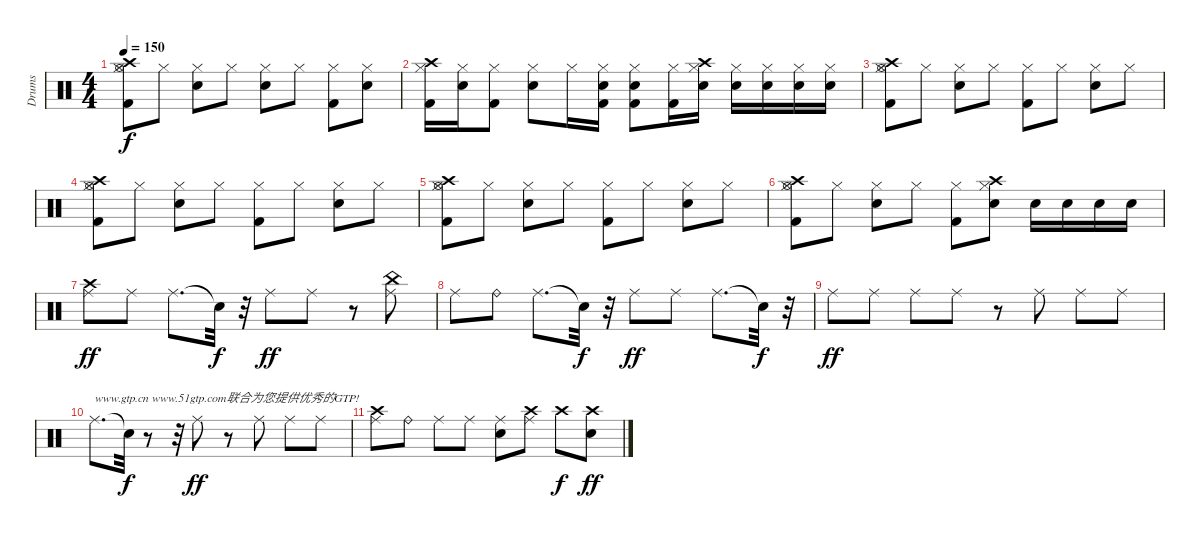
\track ("Drums" "Drums") {instrument percussion}
\staff {score}
\articulation defaults
\ts (4 4)
\tempo 150
\clef neutral
\ks c
("Kick (hit) 2" "Hi-Hat (closed)" "Crash high (hit)" "Hi-Hat (open)").8{dy f} "Hi-Hat (closed)".8 ("Snare (hit) 2" "Hi-Hat (closed)").8 "Hi-Hat (closed)".8 ("Snare (hit) 2" "Hi-Hat (closed)").8 "Hi-Hat (closed)".8 ("Kick (hit) 2" "Hi-Hat (closed)").8 ("Snare (hit) 2" "Hi-Hat (closed)").8 |
("Kick (hit) 2" "Hi-Hat (closed)" "Crash high (hit)").16 ("Snare (hit) 2" "Hi-Hat (closed)").16 ("Kick (hit) 2" "Hi-Hat (closed)").8 ("Snare (hit) 2" "Hi-Hat (closed)").8 "Hi-Hat (closed)".16 ("Snare (hit) 2" "Hi-Hat (closed)" "Kick (hit) 2").16 ("Snare (hit) 2" "Hi-Hat (closed)" "Kick (hit) 2").8 ("Hi-Hat (closed)" "Kick (hit) 2").16 ("Snare (hit) 2" "Hi-Hat (closed)" "Crash high (hit)").16 ("Snare (hit) 2" "Hi-Hat (closed)").16 ("Snare (hit) 2" "Hi-Hat (closed)").16 ("Snare (hit) 2" "Hi-Hat (closed)").16 ("Snare (hit) 2" "Hi-Hat (closed)").16 |
("Kick (hit) 2" "Hi-Hat (closed)" "Crash high (hit)" "Hi-Hat (open)").8 "Hi-Hat (closed)".8 ("Snare (hit) 2" "Hi-Hat (closed)").8 "Hi-Hat (closed)".8 ("Kick (hit) 2" "Hi-Hat (closed)").8 "Hi-Hat (closed)".8 ("Snare (hit) 2" "Hi-Hat (closed)").8 "Hi-Hat (closed)".8 |
("Kick (hit) 2" "Hi-Hat (closed)" "Crash high (hit)" "Hi-Hat (open)").8 "Hi-Hat (closed)".8 ("Snare (hit) 2" "Hi-Hat (closed)").8 "Hi-Hat (closed)".8 ("Kick (hit) 2" "Hi-Hat (closed)").8 "Hi-Hat (closed)".8 ("Snare (hit) 2" "Hi-Hat (closed)").8 "Hi-Hat (closed)".8 |
("Kick (hit) 2" "Hi-Hat (closed)" "Crash high (hit)" "Hi-Hat (open)").8 "Hi-Hat (closed)".8 ("Snare (hit) 2" "Hi-Hat (closed)").8 "Hi-Hat (closed)".8 ("Kick (hit) 2" "Hi-Hat (closed)").8 "Hi-Hat (closed)".8 ("Snare (hit) 2" "Hi-Hat (closed)").8 "Hi-Hat (closed)".8 |
("Kick (hit) 2" "Hi-Hat (closed)" "Crash high (hit)" "Hi-Hat (open)").8 "Hi-Hat (closed)".8 ("Snare (hit) 2" "Hi-Hat (closed)").8 "Hi-Hat (closed)".8 ("Kick (hit) 2" "Hi-Hat (closed)").8 ("Snare (hit) 2" "Hi-Hat (closed)" "Crash high (hit)").8 "Snare (hit) 2".16 "Snare (hit) 2".16 "Snare (hit) 2".16 "Snare (hit) 2".16 |
("Crash high (hit)" "Ride (middle)").8{dy ff} "Ride (middle)".8 "Ride (middle)".8{d} "Snare (hit)"{t}.32{dy f} r.32 "Ride (middle)".8{dy ff} "Ride (middle)".8 r.8 ("Ride (middle)" "China (hit)").8 |
"Ride (middle)".8 "Ride (bell)".8 "Ride (middle)".8{d} "Snare (hit)"{t}.32{dy f} r.32 "Ride (middle)".8{dy ff} "Ride (middle)".8 "Ride (middle)".8{d} "Snare (hit)"{t}.32{dy f} r.32 |
"Ride (middle)".8{dy ff} "Ride (middle)".8 "Ride (middle)".8 "Ride (middle)".8 r.8 "Ride (middle)".8 "Ride (middle)".8 "Ride (middle)".8 |
"Ride (middle)".8{d txt "www.gtp.cn www.51gtp.com联合为您提供优秀的GTP!"} "Snare (hit)"{t}.32{dy f} r.8 r.32 "Ride (middle)".8{dy ff} r.8 "Ride (middle)".8 "Ride (middle)".8 "Ride (middle)".8 |
("Crash high (hit)" "Ride (middle)").8 "Ride (bell)".8 "Ride (middle)".8 "Ride (middle)".8 ("Ride (middle)" "Snare (hit) 2").8 ("Ride (middle)" "Crash high (hit)").8 "Crash high (hit)".8{dy f} ("Snare (hit) 2" "Crash high (hit)").8{dy ff}
